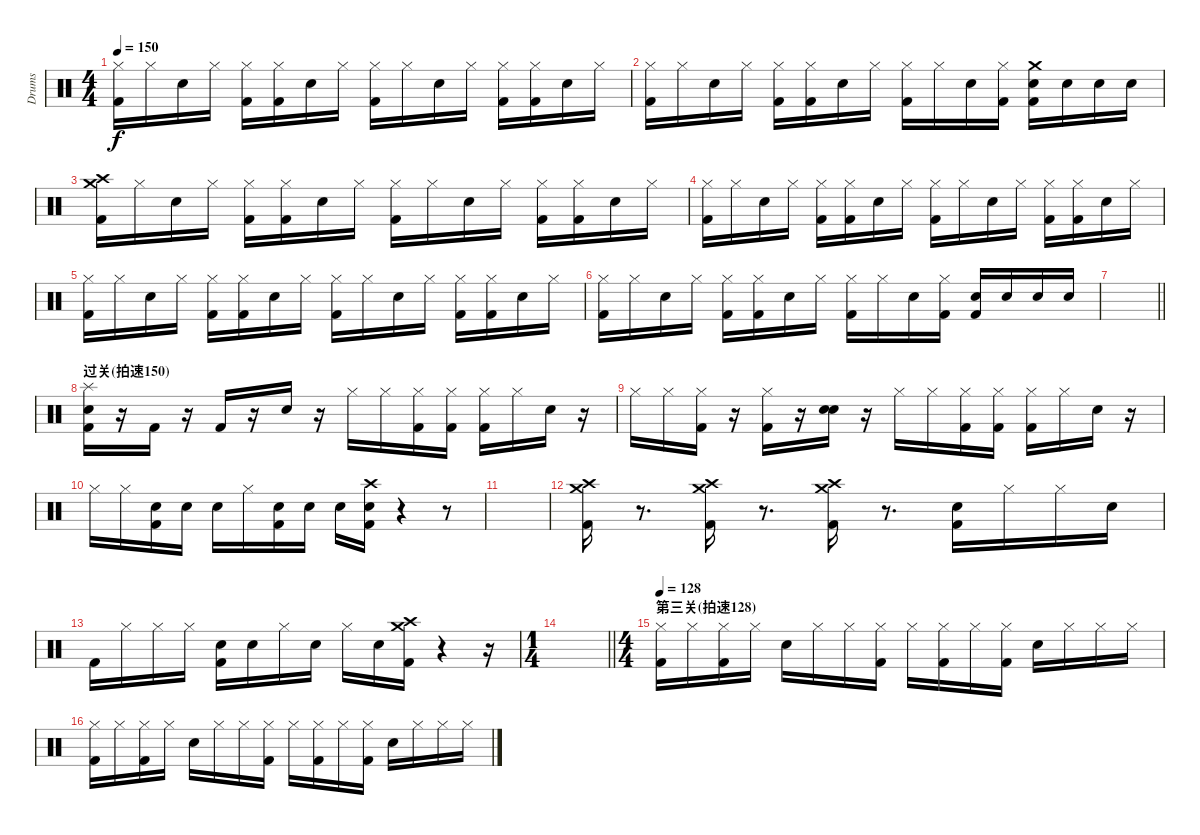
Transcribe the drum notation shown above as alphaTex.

\track ("Drums" "Drums") {instrument percussion}
\staff {score}
\articulation defaults
\ts (4 4)
\tempo 150
\clef neutral
\ks c
("Hi-Hat (closed)" "Kick (hit) 2").16{dy f} "Hi-Hat (closed)".16 "Snare (hit) 2".16 "Hi-Hat (closed)".16 ("Hi-Hat (closed)" "Kick (hit) 2").16 ("Hi-Hat (closed)" "Kick (hit) 2").16 "Snare (hit) 2".16 "Hi-Hat (closed)".16 ("Hi-Hat (closed)" "Kick (hit) 2").16 "Hi-Hat (closed)".16 "Snare (hit) 2".16 "Hi-Hat (closed)".16 ("Hi-Hat (closed)" "Kick (hit) 2").16 ("Hi-Hat (closed)" "Kick (hit) 2").16 "Snare (hit) 2".16 "Hi-Hat (closed)".16 |
("Hi-Hat (closed)" "Kick (hit) 2").16 "Hi-Hat (closed)".16 "Snare (hit) 2".16 "Hi-Hat (closed)".16 ("Hi-Hat (closed)" "Kick (hit) 2").16 ("Hi-Hat (closed)" "Kick (hit) 2").16 "Snare (hit) 2".16 "Hi-Hat (closed)".16 ("Hi-Hat (closed)" "Kick (hit) 2").16 "Hi-Hat (closed)".16 "Snare (hit) 2".16 ("Hi-Hat (closed)" "Kick (hit) 2").16 ("Crash medium (hit)" "Snare (hit) 2" "Kick (hit) 2").16 "Snare (hit) 2".16 "Snare (hit) 2".16 "Snare (hit) 2".16 |
("Crash medium (hit)" "Crash high (hit)" "Kick (hit) 2").16 "Hi-Hat (closed)".16 "Snare (hit) 2".16 "Hi-Hat (closed)".16 ("Hi-Hat (closed)" "Kick (hit) 2").16 ("Hi-Hat (closed)" "Kick (hit) 2").16 "Snare (hit) 2".16 "Hi-Hat (closed)".16 ("Hi-Hat (closed)" "Kick (hit) 2").16 "Hi-Hat (closed)".16 "Snare (hit) 2".16 "Hi-Hat (closed)".16 ("Hi-Hat (closed)" "Kick (hit) 2").16 ("Hi-Hat (closed)" "Kick (hit) 2").16 "Snare (hit) 2".16 "Hi-Hat (closed)".16 |
("Hi-Hat (closed)" "Kick (hit) 2").16 "Hi-Hat (closed)".16 "Snare (hit) 2".16 "Hi-Hat (closed)".16 ("Hi-Hat (closed)" "Kick (hit) 2").16 ("Hi-Hat (closed)" "Kick (hit) 2").16 "Snare (hit) 2".16 "Hi-Hat (closed)".16 ("Hi-Hat (closed)" "Kick (hit) 2").16 "Hi-Hat (closed)".16 "Snare (hit) 2".16 "Hi-Hat (closed)".16 ("Hi-Hat (closed)" "Kick (hit) 2").16 ("Hi-Hat (closed)" "Kick (hit) 2").16 "Snare (hit) 2".16 "Hi-Hat (closed)".16 |
("Hi-Hat (closed)" "Kick (hit) 2").16{volume 0} "Hi-Hat (closed)".16 "Snare (hit) 2".16 "Hi-Hat (closed)".16 ("Hi-Hat (closed)" "Kick (hit) 2").16 ("Hi-Hat (closed)" "Kick (hit) 2").16 "Snare (hit) 2".16 "Hi-Hat (closed)".16 ("Hi-Hat (closed)" "Kick (hit) 2").16 "Hi-Hat (closed)".16 "Snare (hit) 2".16 "Hi-Hat (closed)".16 ("Hi-Hat (closed)" "Kick (hit) 2").16 ("Hi-Hat (closed)" "Kick (hit) 2").16 "Snare (hit) 2".16 "Hi-Hat (closed)".16 |
("Hi-Hat (closed)" "Kick (hit) 2").16 "Hi-Hat (closed)".16 "Snare (hit) 2".16 "Hi-Hat (closed)".16 ("Hi-Hat (closed)" "Kick (hit) 2").16 ("Hi-Hat (closed)" "Kick (hit) 2").16 "Snare (hit) 2".16 "Hi-Hat (closed)".16 ("Hi-Hat (closed)" "Kick (hit) 2").16 "Hi-Hat (closed)".16 "Snare (hit) 2".16 ("Hi-Hat (closed)" "Kick (hit) 2").16 ("Snare (hit) 2" "Kick (hit) 2").16 "Snare (hit) 2".16 "Snare (hit) 2".16 "Snare (hit) 2".16 |
\barLineRight lightlight
|
\section ("" "过关(拍速150)")
("Splash (hit)" "Snare (hit) 2" "Kick (hit) 2").16{volume 13} r.16 "Kick (hit) 2".16 r.16 "Kick (hit) 2".16 r.16 "Snare (hit) 2".16 r.16 "Hi-Hat (closed)".16 "Hi-Hat (closed)".16 ("Hi-Hat (closed)" "Kick (hit) 2").16 ("Hi-Hat (closed)" "Kick (hit) 2").16 ("Hi-Hat (closed)" "Kick (hit) 2").16 "Hi-Hat (closed)".16 "Snare (hit) 2".16 r.16 |
"Hi-Hat (closed)".16 "Hi-Hat (closed)".16 ("Hi-Hat (closed)" "Kick (hit) 2").16 r.16 ("Hi-Hat (closed)" "Kick (hit) 2").16 r.16 ("Snare (hit) 2" "Snare (hit) 2").16 r.16 "Hi-Hat (closed)".16 "Hi-Hat (closed)".16 ("Hi-Hat (closed)" "Kick (hit) 2").16 ("Hi-Hat (closed)" "Kick (hit) 2").16 ("Hi-Hat (closed)" "Kick (hit) 2").16 "Hi-Hat (closed)".16 "Snare (hit) 2".16 r.16 |
"Hi-Hat (closed)".16 "Hi-Hat (closed)".16 ("Snare (hit) 2" "Kick (hit) 2").16 "Snare (hit) 2".16 "Snare (hit) 2".16 "Hi-Hat (closed)".16 ("Snare (hit) 2" "Kick (hit) 2").16 "Snare (hit) 2".16 "Snare (hit) 2".16 ("Crash high (hit)" "Snare (hit) 2" "Kick (hit) 2").16 r.4 r.8 |
|
("Crash medium (hit)" "Crash high (hit)" "Kick (hit) 2").16 r.8{d} ("Crash medium (hit)" "Crash high (hit)" "Kick (hit) 2").16 r.8{d} ("Crash medium (hit)" "Crash high (hit)" "Kick (hit) 2").16 r.8{d} ("Snare (hit) 2" "Kick (hit) 2").16 "Hi-Hat (closed)".16 "Hi-Hat (closed)".16 "Snare (hit) 2".16 |
"Kick (hit) 2".16 "Hi-Hat (closed)".16 "Hi-Hat (closed)".16 "Hi-Hat (closed)".16 ("Snare (hit) 2" "Kick (hit) 2").16 "Snare (hit) 2".16 "Hi-Hat (closed)".16 "Snare (hit) 2".16 "Hi-Hat (closed)".16 "Snare (hit) 2".16 ("Crash medium (hit)" "Crash high (hit)" "Kick (hit) 2").16 r.4 r.16 |
\ts (1 4)
\barLineRight lightlight
|
\ts (4 4)
\section ("" "第三关(拍速128)")
\tempo 128
("Hi-Hat (closed)" "Kick (hit) 2").16 "Hi-Hat (closed)".16 ("Hi-Hat (closed)" "Kick (hit) 2").16 "Hi-Hat (closed)".16 "Snare (hit) 2".16 "Hi-Hat (closed)".16 "Hi-Hat (closed)".16 ("Hi-Hat (closed)" "Kick (hit) 2").16 "Hi-Hat (closed)".16 ("Hi-Hat (closed)" "Kick (hit) 2").16 "Hi-Hat (closed)".16 ("Hi-Hat (closed)" "Kick (hit) 2").16 "Snare (hit) 2".16 "Hi-Hat (closed)".16 "Hi-Hat (closed)".16 "Hi-Hat (closed)".16 |
("Hi-Hat (closed)" "Kick (hit) 2").16 "Hi-Hat (closed)".16 ("Hi-Hat (closed)" "Kick (hit) 2").16 "Hi-Hat (closed)".16 "Snare (hit) 2".16 "Hi-Hat (closed)".16 "Hi-Hat (closed)".16 ("Hi-Hat (closed)" "Kick (hit) 2").16 "Hi-Hat (closed)".16 ("Hi-Hat (closed)" "Kick (hit) 2").16 "Hi-Hat (closed)".16 ("Hi-Hat (closed)" "Kick (hit) 2").16 "Snare (hit) 2".16 "Hi-Hat (closed)".16 "Hi-Hat (closed)".16 "Hi-Hat (closed)".16
